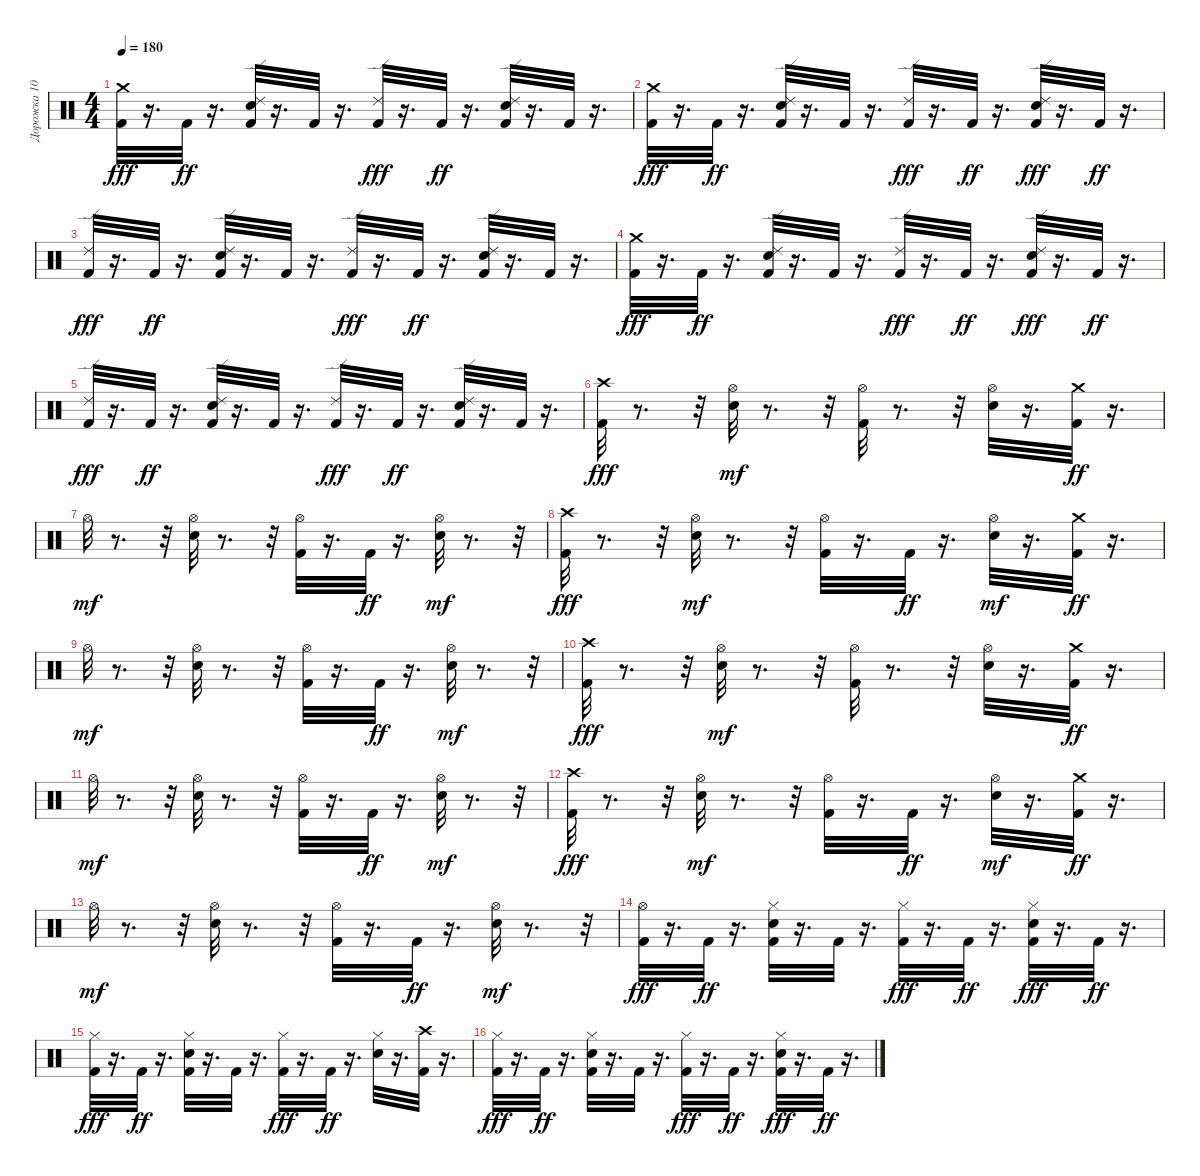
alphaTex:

\track ("Дорожка 10" "Дорожка 10") {instrument percussion}
\staff {score}
\articulation defaults
\ts (4 4)
\tempo 180
\clef neutral
\ks c
("Kick (hit) 2" "Crash medium (hit)").32{dy fff} r.16{d} "Kick (hit) 2".32{dy ff} r.16{d} ("Kick (hit) 2" "Snare (hit) 2" "Ride (edge) 2").32 r.16{d} "Kick (hit) 2".32 r.16{d} ("Kick (hit) 2" "Ride (edge) 2").32{dy fff} r.16{d} "Kick (hit) 2".32{dy ff} r.16{d} ("Kick (hit) 2" "Snare (hit) 2" "Ride (edge) 2").32 r.16{d} "Kick (hit) 2".32 r.16{d} |
("Crash medium (hit)" "Kick (hit) 2").32{dy fff} r.16{d} "Kick (hit) 2".32{dy ff} r.16{d} ("Kick (hit) 2" "Snare (hit) 2" "Ride (edge) 2").32 r.16{d} "Kick (hit) 2".32 r.16{d} ("Kick (hit) 2" "Ride (edge) 2").32{dy fff} r.16{d} "Kick (hit) 2".32{dy ff} r.16{d} ("Kick (hit) 2" "Snare (hit) 2" "Ride (edge) 2").32{dy fff} r.16{d} "Kick (hit) 2".32{dy ff} r.16{d} |
("Kick (hit) 2" "Ride (edge) 2").32{dy fff} r.16{d} "Kick (hit) 2".32{dy ff} r.16{d} ("Kick (hit) 2" "Snare (hit) 2" "Ride (edge) 2").32 r.16{d} "Kick (hit) 2".32 r.16{d} ("Kick (hit) 2" "Ride (edge) 2").32{dy fff} r.16{d} "Kick (hit) 2".32{dy ff} r.16{d} ("Kick (hit) 2" "Snare (hit) 2" "Ride (edge) 2").32 r.16{d} "Kick (hit) 2".32 r.16{d} |
("Crash medium (hit)" "Kick (hit) 2").32{dy fff} r.16{d} "Kick (hit) 2".32{dy ff} r.16{d} ("Kick (hit) 2" "Snare (hit) 2" "Ride (edge) 2").32 r.16{d} "Kick (hit) 2".32 r.16{d} ("Kick (hit) 2" "Ride (edge) 2").32{dy fff} r.16{d} "Kick (hit) 2".32{dy ff} r.16{d} ("Kick (hit) 2" "Snare (hit) 2" "Ride (edge) 2").32{dy fff} r.16{d} "Kick (hit) 2".32{dy ff} r.16{d} |
("Kick (hit) 2" "Ride (edge) 2").32{dy fff} r.16{d} "Kick (hit) 2".32{dy ff} r.16{d} ("Kick (hit) 2" "Snare (hit) 2" "Ride (edge) 2").32 r.16{d} "Kick (hit) 2".32 r.16{d} ("Kick (hit) 2" "Ride (edge) 2").32{dy fff} r.16{d} "Kick (hit) 2".32{dy ff} r.16{d} ("Kick (hit) 2" "Snare (hit) 2" "Ride (edge) 2").32 r.16{d} "Kick (hit) 2".32 r.16{d} |
("Crash high (hit)" "Kick (hit) 2").32{dy fff} r.8{d} r.32 ("Snare (hit) 2" "Hi-Hat (open)").32{dy mf} r.8{d} r.32 ("Kick (hit) 2" "Hi-Hat (open)").32 r.8{d} r.32 ("Snare (hit) 2" "Hi-Hat (open)").32 r.16{d} ("Kick (hit) 2" "Crash medium (hit)").32{dy ff} r.16{d} |
"Hi-Hat (open)".32{dy mf} r.8{d} r.32 ("Snare (hit) 2" "Hi-Hat (open)").32 r.8{d} r.32 ("Kick (hit) 2" "Hi-Hat (open)").32 r.16{d} "Kick (hit) 2".32{dy ff} r.16{d} ("Snare (hit) 2" "Hi-Hat (open)").32{dy mf} r.8{d} r.32 |
("Crash high (hit)" "Kick (hit) 2").32{dy fff} r.8{d} r.32 ("Snare (hit) 2" "Hi-Hat (open)").32{dy mf} r.8{d} r.32 ("Kick (hit) 2" "Hi-Hat (open)").32 r.16{d} "Kick (hit) 2".32{dy ff} r.16{d} ("Snare (hit) 2" "Hi-Hat (open)").32{dy mf} r.16{d} ("Kick (hit) 2" "Crash medium (hit)").32{dy ff} r.16{d} |
"Hi-Hat (open)".32{dy mf} r.8{d} r.32 ("Snare (hit) 2" "Hi-Hat (open)").32 r.8{d} r.32 ("Kick (hit) 2" "Hi-Hat (open)").32 r.16{d} "Kick (hit) 2".32{dy ff} r.16{d} ("Snare (hit) 2" "Hi-Hat (open)").32{dy mf} r.8{d} r.32 |
("Crash high (hit)" "Kick (hit) 2").32{dy fff} r.8{d} r.32 ("Snare (hit) 2" "Hi-Hat (open)").32{dy mf} r.8{d} r.32 ("Kick (hit) 2" "Hi-Hat (open)").32 r.8{d} r.32 ("Snare (hit) 2" "Hi-Hat (open)").32 r.16{d} ("Kick (hit) 2" "Crash medium (hit)").32{dy ff} r.16{d} |
"Hi-Hat (open)".32{dy mf} r.8{d} r.32 ("Snare (hit) 2" "Hi-Hat (open)").32 r.8{d} r.32 ("Kick (hit) 2" "Hi-Hat (open)").32 r.16{d} "Kick (hit) 2".32{dy ff} r.16{d} ("Snare (hit) 2" "Hi-Hat (open)").32{dy mf} r.8{d} r.32 |
("Crash high (hit)" "Kick (hit) 2").32{dy fff} r.8{d} r.32 ("Snare (hit) 2" "Hi-Hat (open)").32{dy mf} r.8{d} r.32 ("Kick (hit) 2" "Hi-Hat (open)").32 r.16{d} "Kick (hit) 2".32{dy ff} r.16{d} ("Snare (hit) 2" "Hi-Hat (open)").32{dy mf} r.16{d} ("Kick (hit) 2" "Crash medium (hit)").32{dy ff} r.16{d} |
"Hi-Hat (open)".32{dy mf} r.8{d} r.32 ("Snare (hit) 2" "Hi-Hat (open)").32 r.8{d} r.32 ("Kick (hit) 2" "Hi-Hat (open)").32 r.16{d} "Kick (hit) 2".32{dy ff} r.16{d} ("Snare (hit) 2" "Hi-Hat (open)").32{dy mf} r.8{d} r.32 |
("Hi-Hat (open)" "Kick (hit) 2").32{dy fff} r.16{d} "Kick (hit) 2".32{dy ff} r.16{d} ("Kick (hit) 2" "Snare (hit) 2" "Hi-Hat (closed)").32 r.16{d} "Kick (hit) 2".32 r.16{d} ("Kick (hit) 2" "Hi-Hat (closed)").32{dy fff} r.16{d} "Kick (hit) 2".32{dy ff} r.16{d} ("Kick (hit) 2" "Snare (hit) 2" "Hi-Hat (closed)").32{dy fff} r.16{d} "Kick (hit) 2".32{dy ff} r.16{d} |
("Kick (hit) 2" "Hi-Hat (closed)").32{dy fff} r.16{d} "Kick (hit) 2".32{dy ff} r.16{d} ("Kick (hit) 2" "Snare (hit) 2" "Hi-Hat (closed)").32 r.16{d} "Kick (hit) 2".32 r.16{d} ("Kick (hit) 2" "Hi-Hat (closed)").32{dy fff} r.16{d} "Kick (hit) 2".32{dy ff} r.16{d} ("Snare (hit) 2" "Hi-Hat (closed)").32 r.16{d} ("Crash high (hit)" "Kick (hit) 2").32 r.16{d} |
("Hi-Hat (closed)" "Kick (hit) 2").32{dy fff} r.16{d} "Kick (hit) 2".32{dy ff} r.16{d} ("Kick (hit) 2" "Snare (hit) 2" "Hi-Hat (closed)").32 r.16{d} "Kick (hit) 2".32 r.16{d} ("Kick (hit) 2" "Hi-Hat (closed)").32{dy fff} r.16{d} "Kick (hit) 2".32{dy ff} r.16{d} ("Kick (hit) 2" "Snare (hit) 2" "Hi-Hat (closed)").32{dy fff} r.16{d} "Kick (hit) 2".32{dy ff} r.16{d}
